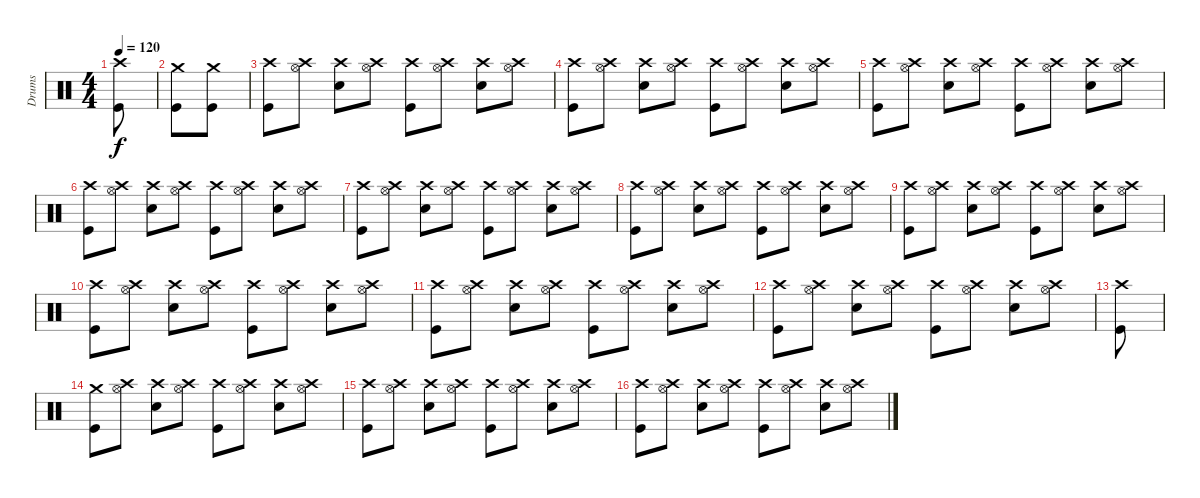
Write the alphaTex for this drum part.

\track ("Drums" "Drums") {instrument percussion}
\staff {score}
\articulation defaults
\ts (4 4)
\tempo 120
\clef neutral
\ks c
("Crash high (hit)" "Kick (hit)").8{dy f} |
("Crash medium (hit)" "Kick (hit)").8 ("Crash medium (hit)" "Kick (hit)").8 |
("Crash high (hit)" "Kick (hit)").8 ("Crash high (hit)" "Hi-Hat (open)").8 ("Crash high (hit)" "Snare (hit) 2").8 ("Crash high (hit)" "Hi-Hat (open)").8 ("Crash high (hit)" "Kick (hit)").8 ("Crash high (hit)" "Hi-Hat (open)").8 ("Crash high (hit)" "Snare (hit) 2").8 ("Crash high (hit)" "Hi-Hat (open)").8 |
("Crash high (hit)" "Kick (hit)").8 ("Crash high (hit)" "Hi-Hat (open)").8 ("Crash high (hit)" "Snare (hit) 2").8 ("Crash high (hit)" "Hi-Hat (open)").8 ("Crash high (hit)" "Kick (hit)").8 ("Crash high (hit)" "Hi-Hat (open)").8 ("Crash high (hit)" "Snare (hit) 2").8 ("Crash high (hit)" "Hi-Hat (open)").8 |
("Crash high (hit)" "Kick (hit)").8 ("Crash high (hit)" "Hi-Hat (open)").8 ("Crash high (hit)" "Snare (hit) 2").8 ("Crash high (hit)" "Hi-Hat (open)").8 ("Crash high (hit)" "Kick (hit)").8 ("Crash high (hit)" "Hi-Hat (open)").8 ("Crash high (hit)" "Snare (hit) 2").8 ("Crash high (hit)" "Hi-Hat (open)").8 |
("Crash high (hit)" "Kick (hit)").8 ("Crash high (hit)" "Hi-Hat (open)").8 ("Crash high (hit)" "Snare (hit) 2").8 ("Crash high (hit)" "Hi-Hat (open)").8 ("Crash high (hit)" "Kick (hit)").8 ("Crash high (hit)" "Hi-Hat (open)").8 ("Crash high (hit)" "Snare (hit) 2").8 ("Crash high (hit)" "Hi-Hat (open)").8 |
("Crash high (hit)" "Kick (hit)").8 ("Crash high (hit)" "Hi-Hat (open)").8 ("Crash high (hit)" "Snare (hit) 2").8 ("Crash high (hit)" "Hi-Hat (open)").8 ("Crash high (hit)" "Kick (hit)").8 ("Crash high (hit)" "Hi-Hat (open)").8 ("Crash high (hit)" "Snare (hit) 2").8 ("Crash high (hit)" "Hi-Hat (open)").8 |
("Crash high (hit)" "Kick (hit)").8 ("Crash high (hit)" "Hi-Hat (open)").8 ("Crash high (hit)" "Snare (hit) 2").8 ("Crash high (hit)" "Hi-Hat (open)").8 ("Crash high (hit)" "Kick (hit)").8 ("Crash high (hit)" "Hi-Hat (open)").8 ("Crash high (hit)" "Snare (hit) 2").8 ("Crash high (hit)" "Hi-Hat (open)").8 |
("Crash high (hit)" "Kick (hit)").8 ("Crash high (hit)" "Hi-Hat (open)").8 ("Crash high (hit)" "Snare (hit) 2").8 ("Crash high (hit)" "Hi-Hat (open)").8 ("Crash high (hit)" "Kick (hit)").8 ("Crash high (hit)" "Hi-Hat (open)").8 ("Crash high (hit)" "Snare (hit) 2").8 ("Crash high (hit)" "Hi-Hat (open)").8 |
("Crash high (hit)" "Kick (hit)").8 ("Crash high (hit)" "Hi-Hat (open)").8 ("Crash high (hit)" "Snare (hit) 2").8 ("Crash high (hit)" "Hi-Hat (open)").8 ("Crash high (hit)" "Kick (hit)").8 ("Crash high (hit)" "Hi-Hat (open)").8 ("Crash high (hit)" "Snare (hit) 2").8 ("Crash high (hit)" "Hi-Hat (open)").8 |
("Crash high (hit)" "Kick (hit)").8 ("Crash high (hit)" "Hi-Hat (open)").8 ("Crash high (hit)" "Snare (hit) 2").8 ("Crash high (hit)" "Hi-Hat (open)").8 ("Crash high (hit)" "Kick (hit)").8 ("Crash high (hit)" "Hi-Hat (open)").8 ("Crash high (hit)" "Snare (hit) 2").8 ("Crash high (hit)" "Hi-Hat (open)").8 |
("Crash high (hit)" "Kick (hit)").8 ("Crash high (hit)" "Hi-Hat (open)").8 ("Crash high (hit)" "Snare (hit) 2").8 ("Crash high (hit)" "Hi-Hat (open)").8 ("Crash high (hit)" "Kick (hit)").8 ("Crash high (hit)" "Hi-Hat (open)").8 ("Crash high (hit)" "Snare (hit) 2").8 ("Crash high (hit)" "Hi-Hat (open)").8 |
("Crash high (hit)" "Kick (hit)").8 |
("Crash medium (hit)" "Kick (hit)").8 ("Crash high (hit)" "Hi-Hat (open)").8 ("Crash high (hit)" "Snare (hit) 2").8 ("Crash high (hit)" "Hi-Hat (open)").8 ("Crash high (hit)" "Kick (hit)").8 ("Crash high (hit)" "Hi-Hat (open)").8 ("Crash high (hit)" "Snare (hit) 2").8 ("Crash high (hit)" "Hi-Hat (open)").8 |
("Crash high (hit)" "Kick (hit)").8 ("Crash high (hit)" "Hi-Hat (open)").8 ("Crash high (hit)" "Snare (hit) 2").8 ("Crash high (hit)" "Hi-Hat (open)").8 ("Crash high (hit)" "Kick (hit)").8 ("Crash high (hit)" "Hi-Hat (open)").8 ("Crash high (hit)" "Snare (hit) 2").8 ("Crash high (hit)" "Hi-Hat (open)").8 |
("Crash high (hit)" "Kick (hit)").8 ("Crash high (hit)" "Hi-Hat (open)").8 ("Crash high (hit)" "Snare (hit) 2").8 ("Crash high (hit)" "Hi-Hat (open)").8 ("Crash high (hit)" "Kick (hit)").8 ("Crash high (hit)" "Hi-Hat (open)").8 ("Crash high (hit)" "Snare (hit) 2").8 ("Crash high (hit)" "Hi-Hat (open)").8
